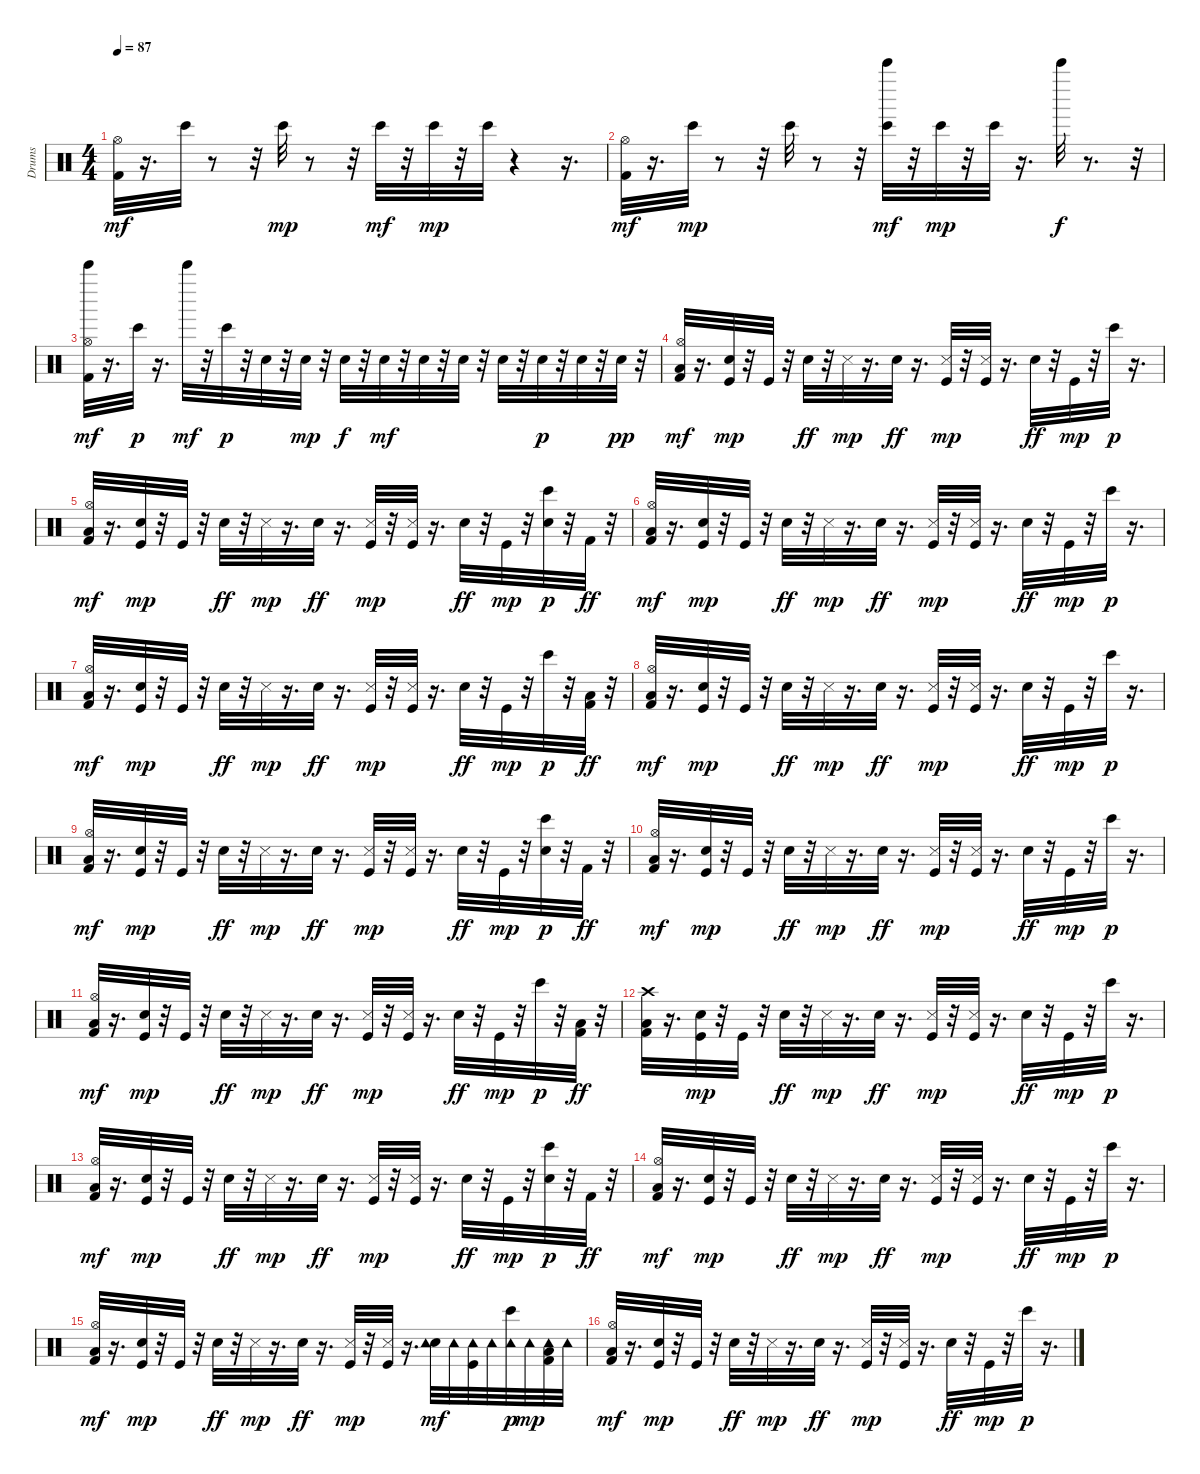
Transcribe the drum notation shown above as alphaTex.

\track ("Drums     " "Drums     ") {instrument percussion}
\staff {score}
\articulation defaults
\ts (4 4)
\tempo 87
\clef neutral
\ks c
("Kick (hit) 2" "Hi-Hat (open)").32{dy mf} r.16{d} "Bongo High (hit)".32 r.8 r.32 "Bongo High (hit)".32{dy mp} r.8 r.32 "Bongo High (hit)".32{dy mf} r.32 "Bongo High (hit)".32{dy mp} r.32 "Bongo High (hit)".32 r.4 r.16{d} |
("Kick (hit) 2" "Hi-Hat (open)").32{dy mf} r.16{d} "Bongo High (hit)".32{dy mp} r.8 r.32 "Bongo High (hit)".32 r.8 r.32 ("Bell Tree (hit)" "Bongo High (hit)").32{dy mf} r.32 "Bongo High (hit)".32{dy mp} r.32 "Bongo High (hit)".32 r.16{d} "Bell Tree (hit)".32{dy f} r.8{d} r.32 |
("Kick (hit) 2" "Hi-Hat (open)" "Bell Tree (hit)").32{dy mf} r.16{d} "Bongo High (hit)".32{dy p} r.16{d} "Bell Tree (hit)".32{dy mf} r.32 "Bongo High (hit)".32{dy p} r.32 "Electric Snare (hit)".32 r.32 "Electric Snare (hit)".32{dy mp} r.32 "Electric Snare (hit)".32{dy f} r.32 "Electric Snare (hit)".32{dy mf} r.32 "Electric Snare (hit)".32 r.32 "Electric Snare (hit)".32 r.32 "Electric Snare (hit)".32 r.32 "Electric Snare (hit)".32{dy p} r.32 "Electric Snare (hit)".32 r.32 "Electric Snare (hit)".32{dy pp} r.32 |
("Kick (hit) 2" "Low Floor Tom (hit)" "Hi-Hat (open)").32{dy mf} r.16{d} ("Kick (hit)" "Snare (hit) 2").32{dy mp} r.32 "Kick (hit)".32 r.32 "Hand Clap (hit)".32{dy ff} r.32 "Snare (side stick) 3".32{dy mp} r.16{d} "Hand Clap (hit)".32{dy ff} r.16{d} ("Kick (hit)" "Snare (side stick) 3").32{dy mp} r.32 ("Kick (hit)" "Snare (side stick) 3").32 r.16{d} "Hand Clap (hit)".32{dy ff} r.32 "Kick (hit)".32{dy mp} r.32 "Bongo High (hit)".32{dy p} r.16{d} |
("Kick (hit) 2" "Low Floor Tom (hit)" "Hi-Hat (open)").32{dy mf} r.16{d} ("Kick (hit)" "Snare (hit) 2").32{dy mp} r.32 "Kick (hit)".32 r.32 "Hand Clap (hit)".32{dy ff} r.32 "Snare (side stick) 3".32{dy mp} r.16{d} "Hand Clap (hit)".32{dy ff} r.16{d} ("Kick (hit)" "Snare (side stick) 3").32{dy mp} r.32 ("Kick (hit)" "Snare (side stick) 3").32 r.16{d} "Hand Clap (hit)".32{dy ff} r.32 "Kick (hit)".32{dy mp} r.32 ("Snare (hit) 2" "Bongo High (hit)").32{dy p} r.32 "Kick (hit) 2".32{dy ff} r.32 |
("Kick (hit) 2" "Low Floor Tom (hit)" "Hi-Hat (open)").32{dy mf} r.16{d} ("Kick (hit)" "Snare (hit) 2").32{dy mp} r.32 "Kick (hit)".32 r.32 "Hand Clap (hit)".32{dy ff} r.32 "Snare (side stick) 3".32{dy mp} r.16{d} "Hand Clap (hit)".32{dy ff} r.16{d} ("Kick (hit)" "Snare (side stick) 3").32{dy mp} r.32 ("Kick (hit)" "Snare (side stick) 3").32 r.16{d} "Hand Clap (hit)".32{dy ff} r.32 "Kick (hit)".32{dy mp} r.32 "Bongo High (hit)".32{dy p} r.16{d} |
("Kick (hit) 2" "Low Floor Tom (hit)" "Hi-Hat (open)").32{dy mf} r.16{d} ("Kick (hit)" "Snare (hit) 2").32{dy mp} r.32 "Kick (hit)".32 r.32 "Hand Clap (hit)".32{dy ff} r.32 "Snare (side stick) 3".32{dy mp} r.16{d} "Hand Clap (hit)".32{dy ff} r.16{d} ("Kick (hit)" "Snare (side stick) 3").32{dy mp} r.32 ("Kick (hit)" "Snare (side stick) 3").32 r.16{d} "Hand Clap (hit)".32{dy ff} r.32 "Kick (hit)".32{dy mp} r.32 "Bongo High (hit)".32{dy p} r.32 ("Kick (hit) 2" "Low Floor Tom (hit)").32{dy ff} r.32 |
("Kick (hit) 2" "Low Floor Tom (hit)" "Hi-Hat (open)").32{dy mf} r.16{d} ("Kick (hit)" "Snare (hit) 2").32{dy mp} r.32 "Kick (hit)".32 r.32 "Hand Clap (hit)".32{dy ff} r.32 "Snare (side stick) 3".32{dy mp} r.16{d} "Hand Clap (hit)".32{dy ff} r.16{d} ("Kick (hit)" "Snare (side stick) 3").32{dy mp} r.32 ("Kick (hit)" "Snare (side stick) 3").32 r.16{d} "Hand Clap (hit)".32{dy ff} r.32 "Kick (hit)".32{dy mp} r.32 "Bongo High (hit)".32{dy p} r.16{d} |
("Kick (hit) 2" "Low Floor Tom (hit)" "Hi-Hat (open)").32{dy mf} r.16{d} ("Kick (hit)" "Snare (hit) 2").32{dy mp} r.32 "Kick (hit)".32 r.32 "Hand Clap (hit)".32{dy ff} r.32 "Snare (side stick) 3".32{dy mp} r.16{d} "Hand Clap (hit)".32{dy ff} r.16{d} ("Kick (hit)" "Snare (side stick) 3").32{dy mp} r.32 ("Kick (hit)" "Snare (side stick) 3").32 r.16{d} "Hand Clap (hit)".32{dy ff} r.32 "Kick (hit)".32{dy mp} r.32 ("Snare (hit) 2" "Bongo High (hit)").32{dy p} r.32 "Kick (hit) 2".32{dy ff} r.32 |
("Kick (hit) 2" "Low Floor Tom (hit)" "Hi-Hat (open)").32{dy mf} r.16{d} ("Kick (hit)" "Snare (hit) 2").32{dy mp} r.32 "Kick (hit)".32 r.32 "Hand Clap (hit)".32{dy ff} r.32 "Snare (side stick) 3".32{dy mp} r.16{d} "Hand Clap (hit)".32{dy ff} r.16{d} ("Kick (hit)" "Snare (side stick) 3").32{dy mp} r.32 ("Kick (hit)" "Snare (side stick) 3").32 r.16{d} "Hand Clap (hit)".32{dy ff} r.32 "Kick (hit)".32{dy mp} r.32 "Bongo High (hit)".32{dy p} r.16{d} |
("Kick (hit) 2" "Low Floor Tom (hit)" "Hi-Hat (open)").32{dy mf} r.16{d} ("Kick (hit)" "Snare (hit) 2").32{dy mp} r.32 "Kick (hit)".32 r.32 "Hand Clap (hit)".32{dy ff} r.32 "Snare (side stick) 3".32{dy mp} r.16{d} "Hand Clap (hit)".32{dy ff} r.16{d} ("Kick (hit)" "Snare (side stick) 3").32{dy mp} r.32 ("Kick (hit)" "Snare (side stick) 3").32 r.16{d} "Hand Clap (hit)".32{dy ff} r.32 "Kick (hit)".32{dy mp} r.32 "Bongo High (hit)".32{dy p} r.32 ("Kick (hit) 2" "Low Floor Tom (hit)").32{dy ff} r.32 |
("Kick (hit) 2" "Low Floor Tom (hit)" "Crash high (hit)").32 r.16{d} ("Kick (hit)" "Snare (hit) 2").32{dy mp} r.32 "Kick (hit)".32 r.32 "Hand Clap (hit)".32{dy ff} r.32 "Snare (side stick) 3".32{dy mp} r.16{d} "Hand Clap (hit)".32{dy ff} r.16{d} ("Kick (hit)" "Snare (side stick) 3").32{dy mp} r.32 ("Kick (hit)" "Snare (side stick) 3").32 r.16{d} "Hand Clap (hit)".32{dy ff} r.32 "Kick (hit)".32{dy mp} r.32 "Bongo High (hit)".32{dy p} r.16{d} |
("Kick (hit) 2" "Low Floor Tom (hit)" "Hi-Hat (open)").32{dy mf} r.16{d} ("Kick (hit)" "Snare (hit) 2").32{dy mp} r.32 "Kick (hit)".32 r.32 "Hand Clap (hit)".32{dy ff} r.32 "Snare (side stick) 3".32{dy mp} r.16{d} "Hand Clap (hit)".32{dy ff} r.16{d} ("Kick (hit)" "Snare (side stick) 3").32{dy mp} r.32 ("Kick (hit)" "Snare (side stick) 3").32 r.16{d} "Hand Clap (hit)".32{dy ff} r.32 "Kick (hit)".32{dy mp} r.32 ("Snare (hit) 2" "Bongo High (hit)").32{dy p} r.32 "Kick (hit) 2".32{dy ff} r.32 |
("Kick (hit) 2" "Low Floor Tom (hit)" "Hi-Hat (open)").32{dy mf} r.16{d} ("Kick (hit)" "Snare (hit) 2").32{dy mp} r.32 "Kick (hit)".32 r.32 "Hand Clap (hit)".32{dy ff} r.32 "Snare (side stick) 3".32{dy mp} r.16{d} "Hand Clap (hit)".32{dy ff} r.16{d} ("Kick (hit)" "Snare (side stick) 3").32{dy mp} r.32 ("Kick (hit)" "Snare (side stick) 3").32 r.16{d} "Hand Clap (hit)".32{dy ff} r.32 "Kick (hit)".32{dy mp} r.32 "Bongo High (hit)".32{dy p} r.16{d} |
("Kick (hit) 2" "Low Floor Tom (hit)" "Hi-Hat (open)").32{dy mf} r.16{d} ("Kick (hit)" "Snare (hit) 2").32{dy mp} r.32 "Kick (hit)".32 r.32 "Hand Clap (hit)".32{dy ff} r.32 "Snare (side stick) 3".32{dy mp} r.16{d} "Hand Clap (hit)".32{dy ff} r.16{d} ("Kick (hit)" "Snare (side stick) 3").32{dy mp} r.32 ("Kick (hit)" "Snare (side stick) 3").32 r.16{d} ("Hand Clap (hit)" "Tambourine (hit)").32{dy mf} "Tambourine (hit)".32 ("Kick (hit)" "Tambourine (hit)").32 "Tambourine (hit)".32 ("Tambourine (hit)" "Bongo High (hit)").32{dy p} "Tambourine (hit)".32{dy mp} ("Kick (hit) 2" "Low Floor Tom (hit)" "Tambourine (hit)").32 "Tambourine (hit)".32 |
("Kick (hit) 2" "Low Floor Tom (hit)" "Hi-Hat (open)").32{dy mf} r.16{d} ("Kick (hit)" "Snare (hit) 2").32{dy mp} r.32 "Kick (hit)".32 r.32 "Hand Clap (hit)".32{dy ff} r.32 "Snare (side stick) 3".32{dy mp} r.16{d} "Hand Clap (hit)".32{dy ff} r.16{d} ("Kick (hit)" "Snare (side stick) 3").32{dy mp} r.32 ("Kick (hit)" "Snare (side stick) 3").32 r.16{d} "Hand Clap (hit)".32{dy ff} r.32 "Kick (hit)".32{dy mp} r.32 "Bongo High (hit)".32{dy p} r.16{d}
